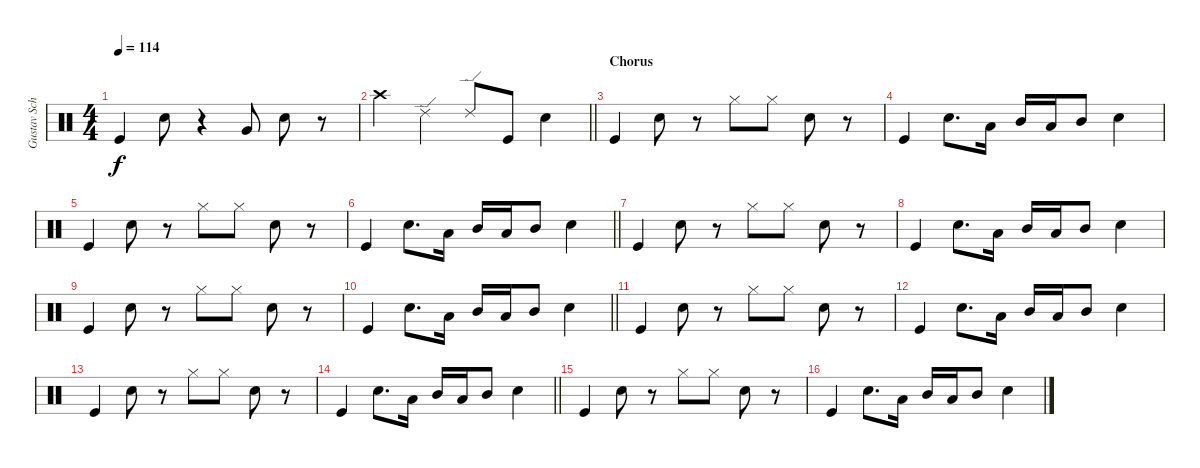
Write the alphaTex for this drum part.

\track ("Gustav Schäfer" "Gustav Sch") {instrument percussion}
\staff {score}
\articulation defaults
\ts (4 4)
\tempo 114
\clef neutral
\ks c "Kick (hit)".4{dy f} "Electric Snare (hit)".8
r.4 "Very Low Tom (hit)".8 "Electric Snare (hit)".8 r.8 |
\barLineRight lightlight "Crash high (hit)".4 "Ride (edge) 2".4 "Ride (edge) 2".8 "Kick (hit)".8 "Electric Snare (hit)".4
|
\section ("" "Chorus")
"Kick (hit)".4 "Electric Snare (hit)".8 r.8 "Hi-Hat (closed)".8 "Hi-Hat (closed)".8 "Electric Snare (hit)".8 r.8 |
"Kick (hit)".4 "Electric Snare (hit)".8{d} "Low Tom (hit)".16 "Mid Tom (hit)".16 "Low Tom (hit)".16 "Mid Tom (hit)".8 "Electric Snare (hit)".4 |
"Kick (hit)".4 "Electric Snare (hit)".8 r.8 "Hi-Hat (closed)".8 "Hi-Hat (closed)".8 "Electric Snare (hit)".8 r.8 |
\barLineRight lightlight "Kick (hit)".4 "Electric Snare (hit)".8{d} "Low Tom (hit)".16 "Mid Tom (hit)".16 "Low Tom (hit)".16 "Mid Tom (hit)".8 "Electric Snare (hit)".4
|
"Kick (hit)".4 "Electric Snare (hit)".8 r.8 "Hi-Hat (closed)".8 "Hi-Hat (closed)".8 "Electric Snare (hit)".8 r.8 |
"Kick (hit)".4 "Electric Snare (hit)".8{d} "Low Tom (hit)".16 "Mid Tom (hit)".16 "Low Tom (hit)".16 "Mid Tom (hit)".8 "Electric Snare (hit)".4 |
"Kick (hit)".4 "Electric Snare (hit)".8 r.8 "Hi-Hat (closed)".8 "Hi-Hat (closed)".8 "Electric Snare (hit)".8 r.8 |
\barLineRight lightlight "Kick (hit)".4 "Electric Snare (hit)".8{d} "Low Tom (hit)".16 "Mid Tom (hit)".16 "Low Tom (hit)".16 "Mid Tom (hit)".8 "Electric Snare (hit)".4
|
"Kick (hit)".4 "Electric Snare (hit)".8 r.8 "Hi-Hat (closed)".8 "Hi-Hat (closed)".8 "Electric Snare (hit)".8 r.8 |
"Kick (hit)".4 "Electric Snare (hit)".8{d} "Low Tom (hit)".16 "Mid Tom (hit)".16 "Low Tom (hit)".16 "Mid Tom (hit)".8 "Electric Snare (hit)".4 |
"Kick (hit)".4 "Electric Snare (hit)".8 r.8 "Hi-Hat (closed)".8 "Hi-Hat (closed)".8 "Electric Snare (hit)".8 r.8 |
\barLineRight lightlight "Kick (hit)".4 "Electric Snare (hit)".8{d} "Low Tom (hit)".16 "Mid Tom (hit)".16 "Low Tom (hit)".16 "Mid Tom (hit)".8 "Electric Snare (hit)".4
|
"Kick (hit)".4 "Electric Snare (hit)".8 r.8 "Hi-Hat (closed)".8 "Hi-Hat (closed)".8 "Electric Snare (hit)".8 r.8 |
"Kick (hit)".4 "Electric Snare (hit)".8{d} "Low Tom (hit)".16 "Mid Tom (hit)".16 "Low Tom (hit)".16 "Mid Tom (hit)".8 "Electric Snare (hit)".4
